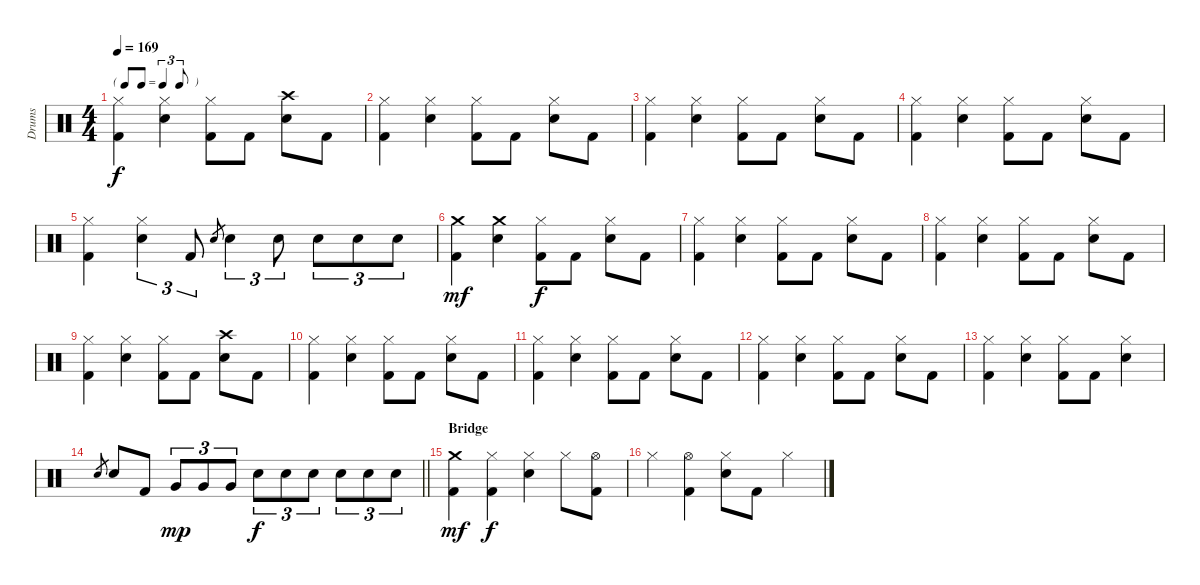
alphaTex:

\track ("Drums" "Drums") {instrument percussion}
\staff {score}
\articulation defaults
\ts (4 4)
\tf triplet8th
\tempo 169
\clef neutral
\ks c
("Hi-Hat (closed)" "Kick (hit) 2").4{dy f} ("Hi-Hat (closed)" "Snare (hit) 2").4 ("Hi-Hat (closed)" "Kick (hit) 2").8 "Kick (hit) 2".8 ("Crash high (hit)" "Snare (hit) 2").8 "Kick (hit) 2".8 |
("Hi-Hat (closed)" "Kick (hit) 2").4 ("Hi-Hat (closed)" "Snare (hit) 2").4 ("Hi-Hat (closed)" "Kick (hit) 2").8 "Kick (hit) 2".8 ("Hi-Hat (closed)" "Snare (hit) 2").8 "Kick (hit) 2".8 |
("Hi-Hat (closed)" "Kick (hit) 2").4 ("Hi-Hat (closed)" "Snare (hit) 2").4 ("Hi-Hat (closed)" "Kick (hit) 2").8 "Kick (hit) 2".8 ("Hi-Hat (closed)" "Snare (hit) 2").8 "Kick (hit) 2".8 |
("Hi-Hat (closed)" "Kick (hit) 2").4 ("Hi-Hat (closed)" "Snare (hit) 2").4 ("Hi-Hat (closed)" "Kick (hit) 2").8 "Kick (hit) 2".8 ("Hi-Hat (closed)" "Snare (hit) 2").8 "Kick (hit) 2".8 |
("Hi-Hat (closed)" "Kick (hit) 2").4 ("Hi-Hat (closed)" "Snare (hit) 2").4{tu (3 2)} "Kick (hit) 2".8{tu (3 2)} "Snare (hit) 2".8{gr} "Snare (hit) 2".4{tu (3 2)} "Snare (hit) 2".8{tu (3 2)} "Snare (hit) 2".8{tu (3 2)} "Snare (hit) 2".8{tu (3 2)} "Snare (hit) 2".8{tu (3 2)} |
("Crash medium (hit)" "Kick (hit) 2").4{dy mf} ("Crash medium (hit)" "Snare (hit) 2").4 ("Hi-Hat (closed)" "Kick (hit) 2").8{dy f} "Kick (hit) 2".8 ("Hi-Hat (closed)" "Snare (hit) 2").8 "Kick (hit) 2".8 |
("Hi-Hat (closed)" "Kick (hit) 2").4 ("Hi-Hat (closed)" "Snare (hit) 2").4 ("Hi-Hat (closed)" "Kick (hit) 2").8 "Kick (hit) 2".8 ("Hi-Hat (closed)" "Snare (hit) 2").8 "Kick (hit) 2".8 |
("Hi-Hat (closed)" "Kick (hit) 2").4 ("Hi-Hat (closed)" "Snare (hit) 2").4 ("Hi-Hat (closed)" "Kick (hit) 2").8 "Kick (hit) 2".8 ("Hi-Hat (closed)" "Snare (hit) 2").8 "Kick (hit) 2".8 |
("Hi-Hat (closed)" "Kick (hit) 2").4 ("Hi-Hat (closed)" "Snare (hit) 2").4 ("Hi-Hat (closed)" "Kick (hit) 2").8 "Kick (hit) 2".8 ("Crash high (hit)" "Snare (hit) 2").8 "Kick (hit) 2".8 |
("Hi-Hat (closed)" "Kick (hit) 2").4 ("Hi-Hat (closed)" "Snare (hit) 2").4 ("Hi-Hat (closed)" "Kick (hit) 2").8 "Kick (hit) 2".8 ("Hi-Hat (closed)" "Snare (hit) 2").8 "Kick (hit) 2".8 |
("Hi-Hat (closed)" "Kick (hit) 2").4 ("Hi-Hat (closed)" "Snare (hit) 2").4 ("Hi-Hat (closed)" "Kick (hit) 2").8 "Kick (hit) 2".8 ("Hi-Hat (closed)" "Snare (hit) 2").8 "Kick (hit) 2".8 |
("Hi-Hat (closed)" "Kick (hit) 2").4 ("Hi-Hat (closed)" "Snare (hit) 2").4 ("Hi-Hat (closed)" "Kick (hit) 2").8 "Kick (hit) 2".8 ("Hi-Hat (closed)" "Snare (hit) 2").8 "Kick (hit) 2".8 |
("Hi-Hat (closed)" "Kick (hit) 2").4 ("Hi-Hat (closed)" "Snare (hit) 2").4 ("Hi-Hat (closed)" "Kick (hit) 2").8 "Kick (hit) 2".8 ("Hi-Hat (closed)" "Snare (hit) 2").4 |
\barLineRight lightlight "Snare (hit) 2".8{gr} "Snare (hit) 2".8 "Kick (hit) 2".8 "Very Low Tom (hit)".8{tu (3 2) dy mp} "Very Low Tom (hit)".8{tu (3 2)} "Very Low Tom (hit)".8{tu (3 2)} "Snare (hit) 2".8{tu (3 2) dy f} "Snare (hit) 2".8{tu (3 2)} "Snare (hit) 2".8{tu (3 2)} "Snare (hit) 2".8{tu (3 2)} "Snare (hit) 2".8{tu (3 2)} "Snare (hit) 2".8{tu (3 2)}
|
\section ("" "Bridge")
("Crash medium (hit)" "Kick (hit) 2").4{dy mf} ("Hi-Hat (closed)" "Kick (hit) 2").4{dy f} ("Hi-Hat (closed)" "Snare (hit) 2").4 "Hi-Hat (closed)".8 ("Hi-Hat (open)" "Kick (hit) 2").8 |
"Hi-Hat (closed)".4 ("Hi-Hat (open)" "Kick (hit) 2").4 ("Hi-Hat (closed)" "Snare (hit) 2").8 "Kick (hit) 2".8 "Hi-Hat (closed)".4
